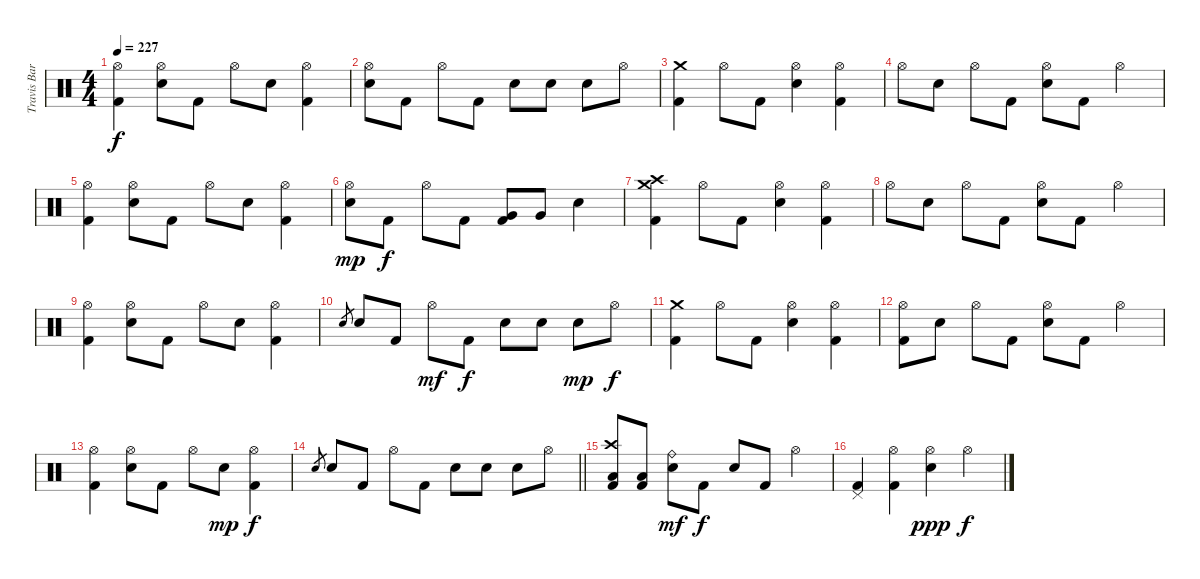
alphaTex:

\track ("Travis Barker - Drum" "Travis Bar") {instrument percussion}
\staff {score}
\articulation defaults
\ts (4 4)
\tempo 227
\clef neutral
\ks c
("Hi-Hat (open)" "Kick (hit) 2").4{dy f} ("Hi-Hat (open)" "Electric Snare (hit)").8 "Kick (hit) 2".8 "Hi-Hat (open)".8 "Electric Snare (hit)".8 ("Hi-Hat (open)" "Kick (hit) 2").4 |
("Hi-Hat (open)" "Electric Snare (hit)").8 "Kick (hit) 2".8 "Hi-Hat (open)".8 "Kick (hit) 2".8 "Electric Snare (hit)".8 "Electric Snare (hit)".8 "Electric Snare (hit)".8 "Hi-Hat (open)".8 |
("Crash medium (hit)" "Kick (hit) 2").4 "Hi-Hat (open)".8 "Kick (hit) 2".8 ("Hi-Hat (open)" "Electric Snare (hit)").4 ("Hi-Hat (open)" "Kick (hit) 2").4 |
"Hi-Hat (open)".8 "Electric Snare (hit)".8 "Hi-Hat (open)".8 "Kick (hit) 2".8 ("Hi-Hat (open)" "Electric Snare (hit)").8 "Kick (hit) 2".8 "Hi-Hat (open)".4 |
("Hi-Hat (open)" "Kick (hit) 2").4 ("Hi-Hat (open)" "Electric Snare (hit)").8 "Kick (hit) 2".8 "Hi-Hat (open)".8 "Electric Snare (hit)".8 ("Hi-Hat (open)" "Kick (hit) 2").4 |
("Hi-Hat (open)" "Electric Snare (hit)").8{dy mp} "Kick (hit) 2".8{dy f} "Hi-Hat (open)".8 "Kick (hit) 2".8 ("Very Low Tom (hit)" "Kick (hit) 2").8 "Very Low Tom (hit)".8 "Electric Snare (hit)".4 |
("Crash medium (hit)" "Crash high (hit)" "Kick (hit) 2").4 "Hi-Hat (open)".8 "Kick (hit) 2".8 ("Hi-Hat (open)" "Electric Snare (hit)").4 ("Hi-Hat (open)" "Kick (hit) 2").4 |
"Hi-Hat (open)".8 "Electric Snare (hit)".8 "Hi-Hat (open)".8 "Kick (hit) 2".8 ("Hi-Hat (open)" "Electric Snare (hit)").8 "Kick (hit) 2".8 "Hi-Hat (open)".4 |
("Hi-Hat (open)" "Kick (hit) 2").4 ("Hi-Hat (open)" "Electric Snare (hit)").8 "Kick (hit) 2".8 "Hi-Hat (open)".8 "Electric Snare (hit)".8 ("Hi-Hat (open)" "Kick (hit) 2").4 |
"Electric Snare (hit)".8{gr} "Electric Snare (hit)".8 "Kick (hit) 2".8 "Hi-Hat (open)".8{dy mf} "Kick (hit) 2".8{dy f} "Electric Snare (hit)".8 "Electric Snare (hit)".8 "Electric Snare (hit)".8{dy mp} "Hi-Hat (open)".8{dy f} |
("Crash medium (hit)" "Kick (hit) 2").4 "Hi-Hat (open)".8 "Kick (hit) 2".8 ("Hi-Hat (open)" "Electric Snare (hit)").4 ("Hi-Hat (open)" "Kick (hit) 2").4 |
("Hi-Hat (open)" "Kick (hit) 2").8 "Electric Snare (hit)".8 "Hi-Hat (open)".8 "Kick (hit) 2".8 ("Hi-Hat (open)" "Electric Snare (hit)").8 "Kick (hit) 2".8 "Hi-Hat (open)".4 |
("Hi-Hat (open)" "Kick (hit) 2").4 ("Hi-Hat (open)" "Electric Snare (hit)").8 "Kick (hit) 2".8 "Hi-Hat (open)".8 "Electric Snare (hit)".8{dy mp} ("Hi-Hat (open)" "Kick (hit) 2").4{dy f} |
\barLineRight lightlight "Electric Snare (hit)".8{gr} "Electric Snare (hit)".8 "Kick (hit) 2".8 "Hi-Hat (open)".8 "Kick (hit) 2".8 "Electric Snare (hit)".8 "Electric Snare (hit)".8 "Electric Snare (hit)".8 "Hi-Hat (open)".8
|
("Crash high (hit)" "Low Floor Tom (hit)" "Kick (hit) 2").8 ("Low Floor Tom (hit)" "Kick (hit) 2").8 ("Ride (bell)" "Electric Snare (hit)").8{dy mf} "Kick (hit) 2".8{dy f} "Electric Snare (hit)".8 "Kick (hit) 2".8 "Hi-Hat (open)".4 |
("Pedal Hi-Hat (hit)" "Kick (hit) 2").4 ("Hi-Hat (open)" "Kick (hit) 2").4 ("Hi-Hat (open)" "Electric Snare (hit)").4{dy ppp} "Hi-Hat (open)".4{dy f}
